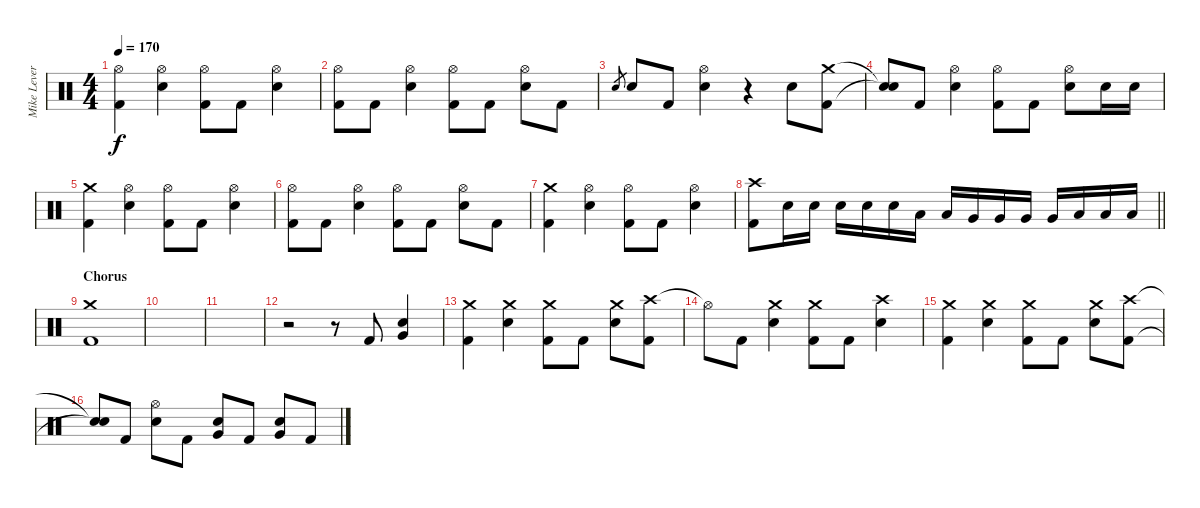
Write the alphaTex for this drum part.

\track ("Mike Leverence - Drums" "Mike Lever") {instrument percussion}
\staff {score}
\articulation defaults
\ts (4 4)
\tempo 170
\clef neutral
\ks c
("Hi-Hat (open)" "Kick (hit) 2").4{dy f} ("Hi-Hat (open)" "Electric Snare (hit)").4 ("Hi-Hat (open)" "Kick (hit) 2").8 "Kick (hit) 2".8 ("Hi-Hat (open)" "Electric Snare (hit)").4 |
("Hi-Hat (open)" "Kick (hit) 2").8 "Kick (hit) 2".8 ("Hi-Hat (open)" "Electric Snare (hit)").4 ("Hi-Hat (open)" "Kick (hit) 2").8 "Kick (hit) 2".8 ("Hi-Hat (open)" "Electric Snare (hit)").8 "Kick (hit) 2".8 |
"Electric Snare (hit)".8{gr} "Electric Snare (hit)".8 "Kick (hit) 2".8 ("Hi-Hat (open)" "Electric Snare (hit)").4 r.4 "Electric Snare (hit)".8 ("Crash medium (hit)" "Kick (hit) 2").8 |
("Snare (hit)"{t} "Snare (hit)"{t}).8 "Kick (hit) 2".8 ("Hi-Hat (open)" "Electric Snare (hit)").4 ("Hi-Hat (open)" "Kick (hit) 2").8 "Kick (hit) 2".8 ("Hi-Hat (open)" "Electric Snare (hit)").8 "Electric Snare (hit)".16 "Electric Snare (hit)".16 |
("Crash medium (hit)" "Kick (hit) 2").4 ("Hi-Hat (open)" "Electric Snare (hit)").4 ("Hi-Hat (open)" "Kick (hit) 2").8 "Kick (hit) 2".8 ("Hi-Hat (open)" "Electric Snare (hit)").4 |
("Hi-Hat (open)" "Kick (hit) 2").8 "Kick (hit) 2".8 ("Hi-Hat (open)" "Electric Snare (hit)").4 ("Hi-Hat (open)" "Kick (hit) 2").8 "Kick (hit) 2".8 ("Hi-Hat (open)" "Electric Snare (hit)").8 "Kick (hit) 2".8 |
("Crash medium (hit)" "Kick (hit) 2").4 ("Hi-Hat (open)" "Electric Snare (hit)").4 ("Hi-Hat (open)" "Kick (hit) 2").8 "Kick (hit) 2".8 ("Hi-Hat (open)" "Electric Snare (hit)").4 |
\barLineRight lightlight
("Crash high (hit)" "Kick (hit) 2").8 "Electric Snare (hit)".16 "Electric Snare (hit)".16 "Electric Snare (hit)".16 "Electric Snare (hit)".16 "Electric Snare (hit)".16 "Low Tom (hit)".16 "Low Tom (hit)".16 "Very Low Tom (hit)".16 "Very Low Tom (hit)".16 "Very Low Tom (hit)".16 "Very Low Tom (hit)".16 "Low Floor Tom (hit)".16 "Low Floor Tom (hit)".16 "Low Floor Tom (hit)".16 |
\section ("" "Chorus")
("Crash medium (hit)" "Kick (hit) 2").1 |
|
|
r.2 r.8 "Kick (hit) 2".8 ("Very Low Tom (hit)" "Electric Snare (hit)").4 |
("Crash medium (hit)" "Kick (hit) 2").4 ("Crash medium (hit)" "Electric Snare (hit)").4 ("Crash medium (hit)" "Kick (hit) 2").8 "Kick (hit) 2".8 ("Crash medium (hit)" "Electric Snare (hit)").8 ("Crash high (hit)" "Kick (hit) 2").8 |
"Hi-Hat (open)"{t}.8 "Kick (hit) 2".8 ("Crash medium (hit)" "Electric Snare (hit)").4 ("Crash medium (hit)" "Kick (hit) 2").8 "Kick (hit) 2".8 ("Crash high (hit)" "Electric Snare (hit)").4 |
("Crash medium (hit)" "Kick (hit) 2").4 ("Crash medium (hit)" "Electric Snare (hit)").4 ("Crash medium (hit)" "Kick (hit) 2").8 "Kick (hit) 2".8 ("Crash medium (hit)" "Electric Snare (hit)").8 ("Crash high (hit)" "Kick (hit) 2").8 |
("Snare (hit)"{t} "Snare (hit)"{t}).8 "Kick (hit) 2".8 ("Hi-Hat (open)" "Electric Snare (hit)").8 "Kick (hit) 2".8 ("Very Low Tom (hit)" "Electric Snare (hit)").8 "Kick (hit) 2".8 ("Very Low Tom (hit)" "Electric Snare (hit)").8 "Kick (hit) 2".8
